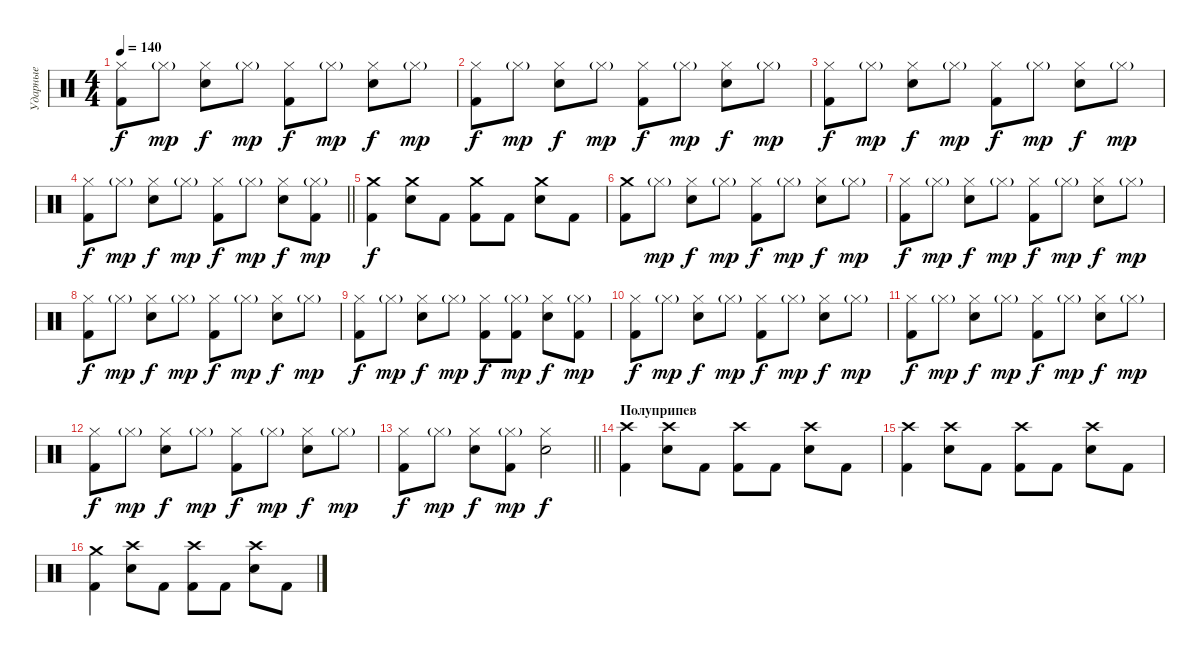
\track ("Ударные" "Ударные") {instrument percussion}
\staff {score}
\articulation defaults
\ts (4 4)
\tempo 140
\clef neutral
\ks c
("Hi-Hat (closed)" "Kick (hit) 2").8{dy f} "Hi-Hat (closed)"{g}.8{dy mp} ("Hi-Hat (closed)" "Snare (hit) 2").8{dy f} "Hi-Hat (closed)"{g}.8{dy mp} ("Hi-Hat (closed)" "Kick (hit) 2").8{dy f} "Hi-Hat (closed)"{g}.8{dy mp} ("Hi-Hat (closed)" "Snare (hit) 2").8{dy f} "Hi-Hat (closed)"{g}.8{dy mp} |
("Hi-Hat (closed)" "Kick (hit) 2").8{dy f} "Hi-Hat (closed)"{g}.8{dy mp} ("Hi-Hat (closed)" "Snare (hit) 2").8{dy f} "Hi-Hat (closed)"{g}.8{dy mp} ("Hi-Hat (closed)" "Kick (hit) 2").8{dy f} "Hi-Hat (closed)"{g}.8{dy mp} ("Hi-Hat (closed)" "Snare (hit) 2").8{dy f} "Hi-Hat (closed)"{g}.8{dy mp} |
("Hi-Hat (closed)" "Kick (hit) 2").8{dy f} "Hi-Hat (closed)"{g}.8{dy mp} ("Hi-Hat (closed)" "Snare (hit) 2").8{dy f} "Hi-Hat (closed)"{g}.8{dy mp} ("Hi-Hat (closed)" "Kick (hit) 2").8{dy f} "Hi-Hat (closed)"{g}.8{dy mp} ("Hi-Hat (closed)" "Snare (hit) 2").8{dy f} "Hi-Hat (closed)"{g}.8{dy mp} |
\barLineRight lightlight
("Hi-Hat (closed)" "Kick (hit) 2").8{dy f} "Hi-Hat (closed)"{g}.8{dy mp} ("Hi-Hat (closed)" "Snare (hit) 2").8{dy f} "Hi-Hat (closed)"{g}.8{dy mp} ("Hi-Hat (closed)" "Kick (hit) 2").8{dy f} "Hi-Hat (closed)"{g}.8{dy mp} ("Hi-Hat (closed)" "Snare (hit) 2").8{dy f} ("Hi-Hat (closed)"{g} "Kick (hit) 2").8{dy mp} |
("Crash medium (hit)" "Kick (hit) 2").4{dy f} ("Crash medium (hit)" "Snare (hit) 2").8 "Kick (hit) 2".8 ("Crash medium (hit)" "Kick (hit) 2").8 "Kick (hit) 2".8 ("Crash medium (hit)" "Snare (hit) 2").8 "Kick (hit) 2".8 |
("Crash medium (hit)" "Kick (hit) 2").8 "Hi-Hat (closed)"{g}.8{dy mp} ("Hi-Hat (closed)" "Snare (hit) 2").8{dy f} "Hi-Hat (closed)"{g}.8{dy mp} ("Hi-Hat (closed)" "Kick (hit) 2").8{dy f} "Hi-Hat (closed)"{g}.8{dy mp} ("Hi-Hat (closed)" "Snare (hit) 2").8{dy f} "Hi-Hat (closed)"{g}.8{dy mp} |
("Hi-Hat (closed)" "Kick (hit) 2").8{dy f} "Hi-Hat (closed)"{g}.8{dy mp} ("Hi-Hat (closed)" "Snare (hit) 2").8{dy f} "Hi-Hat (closed)"{g}.8{dy mp} ("Hi-Hat (closed)" "Kick (hit) 2").8{dy f} "Hi-Hat (closed)"{g}.8{dy mp} ("Hi-Hat (closed)" "Snare (hit) 2").8{dy f} "Hi-Hat (closed)"{g}.8{dy mp} |
("Hi-Hat (closed)" "Kick (hit) 2").8{dy f} "Hi-Hat (closed)"{g}.8{dy mp} ("Hi-Hat (closed)" "Snare (hit) 2").8{dy f} "Hi-Hat (closed)"{g}.8{dy mp} ("Hi-Hat (closed)" "Kick (hit) 2").8{dy f} "Hi-Hat (closed)"{g}.8{dy mp} ("Hi-Hat (closed)" "Snare (hit) 2").8{dy f} "Hi-Hat (closed)"{g}.8{dy mp} |
("Hi-Hat (closed)" "Kick (hit) 2").8{dy f} "Hi-Hat (closed)"{g}.8{dy mp} ("Hi-Hat (closed)" "Snare (hit) 2").8{dy f} "Hi-Hat (closed)"{g}.8{dy mp} ("Hi-Hat (closed)" "Kick (hit) 2").8{dy f} ("Hi-Hat (closed)"{g} "Kick (hit) 2").8{dy mp} ("Hi-Hat (closed)" "Snare (hit) 2").8{dy f} ("Hi-Hat (closed)"{g} "Kick (hit) 2").8{dy mp} |
("Hi-Hat (closed)" "Kick (hit) 2").8{dy f} "Hi-Hat (closed)"{g}.8{dy mp} ("Hi-Hat (closed)" "Snare (hit) 2").8{dy f} "Hi-Hat (closed)"{g}.8{dy mp} ("Hi-Hat (closed)" "Kick (hit) 2").8{dy f} "Hi-Hat (closed)"{g}.8{dy mp} ("Hi-Hat (closed)" "Snare (hit) 2").8{dy f} "Hi-Hat (closed)"{g}.8{dy mp} |
("Hi-Hat (closed)" "Kick (hit) 2").8{dy f} "Hi-Hat (closed)"{g}.8{dy mp} ("Hi-Hat (closed)" "Snare (hit) 2").8{dy f} "Hi-Hat (closed)"{g}.8{dy mp} ("Hi-Hat (closed)" "Kick (hit) 2").8{dy f} "Hi-Hat (closed)"{g}.8{dy mp} ("Hi-Hat (closed)" "Snare (hit) 2").8{dy f} "Hi-Hat (closed)"{g}.8{dy mp} |
("Hi-Hat (closed)" "Kick (hit) 2").8{dy f} "Hi-Hat (closed)"{g}.8{dy mp} ("Hi-Hat (closed)" "Snare (hit) 2").8{dy f} "Hi-Hat (closed)"{g}.8{dy mp} ("Hi-Hat (closed)" "Kick (hit) 2").8{dy f} "Hi-Hat (closed)"{g}.8{dy mp} ("Hi-Hat (closed)" "Snare (hit) 2").8{dy f} "Hi-Hat (closed)"{g}.8{dy mp} |
\barLineRight lightlight
("Hi-Hat (closed)" "Kick (hit) 2").8{dy f} "Hi-Hat (closed)"{g}.8{dy mp} ("Hi-Hat (closed)" "Snare (hit) 2").8{dy f} ("Hi-Hat (closed)"{g} "Kick (hit) 2").8{dy mp} ("Hi-Hat (closed)" "Snare (hit) 2").2{dy f} |
\section ("" "Полуприпев")
("Crash high (hit)" "Kick (hit) 2").4 ("Crash high (hit)" "Snare (hit) 2").8 "Kick (hit) 2".8 ("Crash high (hit)" "Kick (hit) 2").8 "Kick (hit) 2".8 ("Crash high (hit)" "Snare (hit) 2").8 "Kick (hit) 2".8 |
("Crash high (hit)" "Kick (hit) 2").4 ("Crash high (hit)" "Snare (hit) 2").8 "Kick (hit) 2".8 ("Crash high (hit)" "Kick (hit) 2").8 "Kick (hit) 2".8 ("Crash high (hit)" "Snare (hit) 2").8 "Kick (hit) 2".8 |
("Crash medium (hit)" "Kick (hit) 2").4 ("Crash high (hit)" "Snare (hit) 2").8 "Kick (hit) 2".8 ("Crash high (hit)" "Kick (hit) 2").8 "Kick (hit) 2".8 ("Crash high (hit)" "Snare (hit) 2").8 "Kick (hit) 2".8
